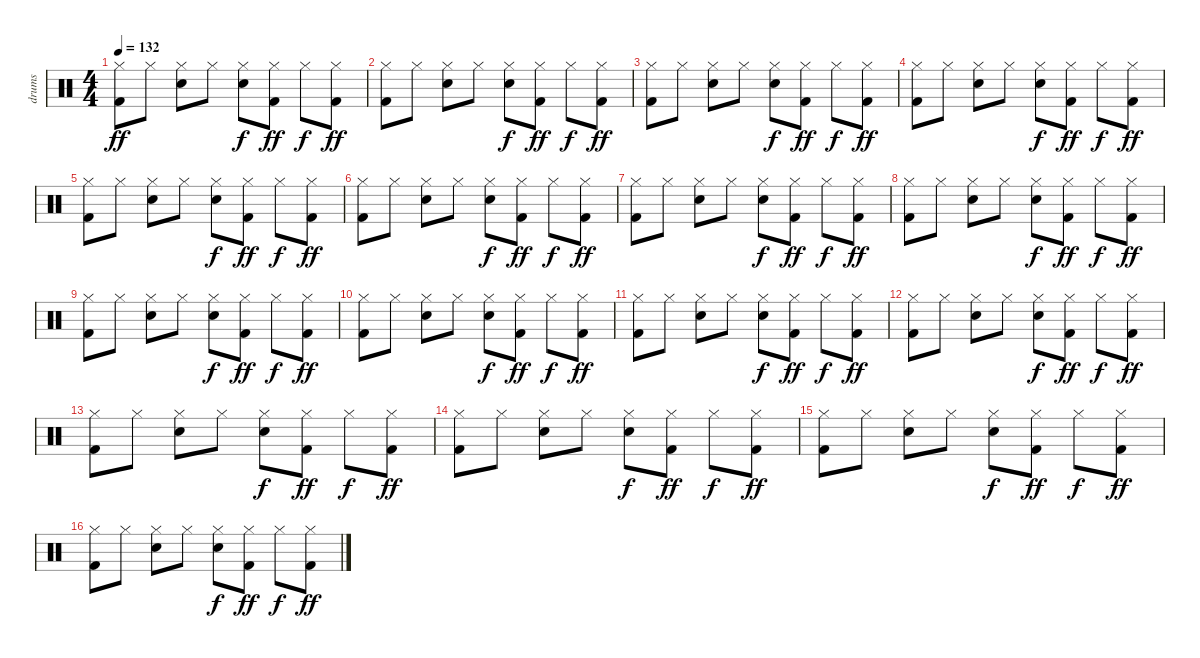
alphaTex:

\track ("drums" "drums") {instrument percussion}
\staff {score}
\articulation defaults
\ts (4 4)
\tempo 132
\clef neutral
\ks c
("Hi-Hat (closed)" "Kick (hit) 2").8{dy ff} "Hi-Hat (closed)".8 ("Hi-Hat (closed)" "Electric Snare (hit)").8 "Hi-Hat (closed)".8 ("Hi-Hat (closed)" "Electric Snare (hit)").8{dy f} ("Kick (hit) 2" "Hi-Hat (closed)").8{dy ff} "Hi-Hat (closed)".8{dy f} ("Kick (hit) 2" "Hi-Hat (closed)").8{dy ff} |
("Hi-Hat (closed)" "Kick (hit) 2").8 "Hi-Hat (closed)".8 ("Hi-Hat (closed)" "Electric Snare (hit)").8 "Hi-Hat (closed)".8 ("Hi-Hat (closed)" "Electric Snare (hit)").8{dy f} ("Kick (hit) 2" "Hi-Hat (closed)").8{dy ff} "Hi-Hat (closed)".8{dy f} ("Kick (hit) 2" "Hi-Hat (closed)").8{dy ff} |
("Hi-Hat (closed)" "Kick (hit) 2").8 "Hi-Hat (closed)".8 ("Hi-Hat (closed)" "Electric Snare (hit)").8 "Hi-Hat (closed)".8 ("Hi-Hat (closed)" "Electric Snare (hit)").8{dy f} ("Kick (hit) 2" "Hi-Hat (closed)").8{dy ff} "Hi-Hat (closed)".8{dy f} ("Kick (hit) 2" "Hi-Hat (closed)").8{dy ff} |
("Hi-Hat (closed)" "Kick (hit) 2").8 "Hi-Hat (closed)".8 ("Hi-Hat (closed)" "Electric Snare (hit)").8 "Hi-Hat (closed)".8 ("Hi-Hat (closed)" "Electric Snare (hit)").8{dy f} ("Kick (hit) 2" "Hi-Hat (closed)").8{dy ff} "Hi-Hat (closed)".8{dy f} ("Kick (hit) 2" "Hi-Hat (closed)").8{dy ff} |
("Hi-Hat (closed)" "Kick (hit) 2").8 "Hi-Hat (closed)".8 ("Hi-Hat (closed)" "Electric Snare (hit)").8 "Hi-Hat (closed)".8 ("Hi-Hat (closed)" "Electric Snare (hit)").8{dy f} ("Kick (hit) 2" "Hi-Hat (closed)").8{dy ff} "Hi-Hat (closed)".8{dy f} ("Kick (hit) 2" "Hi-Hat (closed)").8{dy ff} |
("Hi-Hat (closed)" "Kick (hit) 2").8 "Hi-Hat (closed)".8 ("Hi-Hat (closed)" "Electric Snare (hit)").8 "Hi-Hat (closed)".8 ("Hi-Hat (closed)" "Electric Snare (hit)").8{dy f} ("Kick (hit) 2" "Hi-Hat (closed)").8{dy ff} "Hi-Hat (closed)".8{dy f} ("Kick (hit) 2" "Hi-Hat (closed)").8{dy ff} |
("Hi-Hat (closed)" "Kick (hit) 2").8 "Hi-Hat (closed)".8 ("Hi-Hat (closed)" "Electric Snare (hit)").8 "Hi-Hat (closed)".8 ("Hi-Hat (closed)" "Electric Snare (hit)").8{dy f} ("Kick (hit) 2" "Hi-Hat (closed)").8{dy ff} "Hi-Hat (closed)".8{dy f} ("Kick (hit) 2" "Hi-Hat (closed)").8{dy ff} |
("Hi-Hat (closed)" "Kick (hit) 2").8 "Hi-Hat (closed)".8 ("Hi-Hat (closed)" "Electric Snare (hit)").8 "Hi-Hat (closed)".8 ("Hi-Hat (closed)" "Electric Snare (hit)").8{dy f} ("Kick (hit) 2" "Hi-Hat (closed)").8{dy ff} "Hi-Hat (closed)".8{dy f} ("Kick (hit) 2" "Hi-Hat (closed)").8{dy ff} |
("Hi-Hat (closed)" "Kick (hit) 2").8 "Hi-Hat (closed)".8 ("Hi-Hat (closed)" "Electric Snare (hit)").8 "Hi-Hat (closed)".8 ("Hi-Hat (closed)" "Electric Snare (hit)").8{dy f} ("Kick (hit) 2" "Hi-Hat (closed)").8{dy ff} "Hi-Hat (closed)".8{dy f} ("Kick (hit) 2" "Hi-Hat (closed)").8{dy ff} |
("Hi-Hat (closed)" "Kick (hit) 2").8 "Hi-Hat (closed)".8 ("Hi-Hat (closed)" "Electric Snare (hit)").8 "Hi-Hat (closed)".8 ("Hi-Hat (closed)" "Electric Snare (hit)").8{dy f} ("Kick (hit) 2" "Hi-Hat (closed)").8{dy ff} "Hi-Hat (closed)".8{dy f} ("Kick (hit) 2" "Hi-Hat (closed)").8{dy ff} |
("Hi-Hat (closed)" "Kick (hit) 2").8 "Hi-Hat (closed)".8 ("Hi-Hat (closed)" "Electric Snare (hit)").8 "Hi-Hat (closed)".8 ("Hi-Hat (closed)" "Electric Snare (hit)").8{dy f} ("Kick (hit) 2" "Hi-Hat (closed)").8{dy ff} "Hi-Hat (closed)".8{dy f} ("Kick (hit) 2" "Hi-Hat (closed)").8{dy ff} |
("Hi-Hat (closed)" "Kick (hit) 2").8 "Hi-Hat (closed)".8 ("Hi-Hat (closed)" "Electric Snare (hit)").8 "Hi-Hat (closed)".8 ("Hi-Hat (closed)" "Electric Snare (hit)").8{dy f} ("Kick (hit) 2" "Hi-Hat (closed)").8{dy ff} "Hi-Hat (closed)".8{dy f} ("Kick (hit) 2" "Hi-Hat (closed)").8{dy ff} |
("Hi-Hat (closed)" "Kick (hit) 2").8 "Hi-Hat (closed)".8 ("Hi-Hat (closed)" "Electric Snare (hit)").8 "Hi-Hat (closed)".8 ("Hi-Hat (closed)" "Electric Snare (hit)").8{dy f} ("Kick (hit) 2" "Hi-Hat (closed)").8{dy ff} "Hi-Hat (closed)".8{dy f} ("Kick (hit) 2" "Hi-Hat (closed)").8{dy ff} |
("Hi-Hat (closed)" "Kick (hit) 2").8 "Hi-Hat (closed)".8 ("Hi-Hat (closed)" "Electric Snare (hit)").8 "Hi-Hat (closed)".8 ("Hi-Hat (closed)" "Electric Snare (hit)").8{dy f} ("Kick (hit) 2" "Hi-Hat (closed)").8{dy ff} "Hi-Hat (closed)".8{dy f} ("Kick (hit) 2" "Hi-Hat (closed)").8{dy ff} |
("Hi-Hat (closed)" "Kick (hit) 2").8 "Hi-Hat (closed)".8 ("Hi-Hat (closed)" "Electric Snare (hit)").8 "Hi-Hat (closed)".8 ("Hi-Hat (closed)" "Electric Snare (hit)").8{dy f} ("Kick (hit) 2" "Hi-Hat (closed)").8{dy ff} "Hi-Hat (closed)".8{dy f} ("Kick (hit) 2" "Hi-Hat (closed)").8{dy ff} |
("Hi-Hat (closed)" "Kick (hit) 2").8 "Hi-Hat (closed)".8 ("Hi-Hat (closed)" "Electric Snare (hit)").8 "Hi-Hat (closed)".8 ("Hi-Hat (closed)" "Electric Snare (hit)").8{dy f} ("Kick (hit) 2" "Hi-Hat (closed)").8{dy ff} "Hi-Hat (closed)".8{dy f} ("Kick (hit) 2" "Hi-Hat (closed)").8{dy ff}
